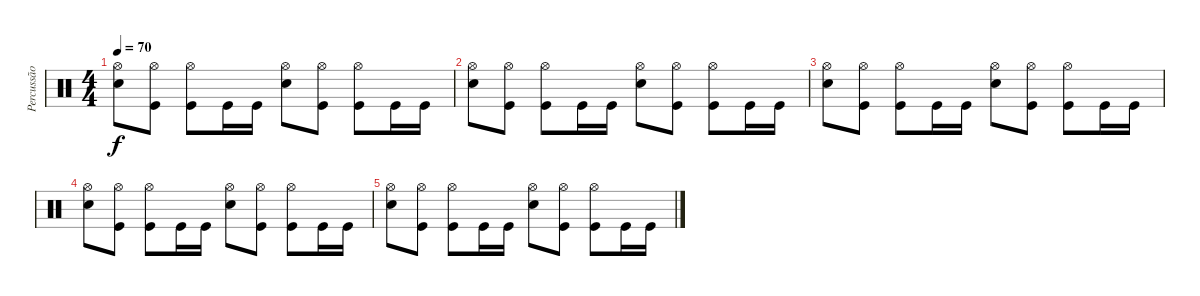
\track ("Percussão" "Percussão") {instrument percussion}
\staff {score}
\articulation defaults
\ts (4 4)
\tempo 70
\clef neutral
\ks c
("Hi-Hat (open)" "Electric Snare (hit)").8{dy f} ("Hi-Hat (open)" "Kick (hit)").8 ("Hi-Hat (open)" "Kick (hit)").8 "Kick (hit)".16 "Kick (hit)".16 ("Hi-Hat (open)" "Electric Snare (hit)").8 ("Hi-Hat (open)" "Kick (hit)").8 ("Hi-Hat (open)" "Kick (hit)").8 "Kick (hit)".16 "Kick (hit)".16 |
("Hi-Hat (open)" "Electric Snare (hit)").8 ("Hi-Hat (open)" "Kick (hit)").8 ("Hi-Hat (open)" "Kick (hit)").8 "Kick (hit)".16 "Kick (hit)".16 ("Hi-Hat (open)" "Electric Snare (hit)").8 ("Hi-Hat (open)" "Kick (hit)").8 ("Hi-Hat (open)" "Kick (hit)").8 "Kick (hit)".16 "Kick (hit)".16 |
("Hi-Hat (open)" "Electric Snare (hit)").8 ("Hi-Hat (open)" "Kick (hit)").8 ("Hi-Hat (open)" "Kick (hit)").8 "Kick (hit)".16 "Kick (hit)".16 ("Hi-Hat (open)" "Electric Snare (hit)").8 ("Hi-Hat (open)" "Kick (hit)").8 ("Hi-Hat (open)" "Kick (hit)").8 "Kick (hit)".16 "Kick (hit)".16 |
("Hi-Hat (open)" "Electric Snare (hit)").8 ("Hi-Hat (open)" "Kick (hit)").8 ("Hi-Hat (open)" "Kick (hit)").8 "Kick (hit)".16 "Kick (hit)".16 ("Hi-Hat (open)" "Electric Snare (hit)").8 ("Hi-Hat (open)" "Kick (hit)").8 ("Hi-Hat (open)" "Kick (hit)").8 "Kick (hit)".16 "Kick (hit)".16 |
("Hi-Hat (open)" "Electric Snare (hit)").8 ("Hi-Hat (open)" "Kick (hit)").8 ("Hi-Hat (open)" "Kick (hit)").8 "Kick (hit)".16 "Kick (hit)".16 ("Hi-Hat (open)" "Electric Snare (hit)").8 ("Hi-Hat (open)" "Kick (hit)").8 ("Hi-Hat (open)" "Kick (hit)").8 "Kick (hit)".16 "Kick (hit)".16
